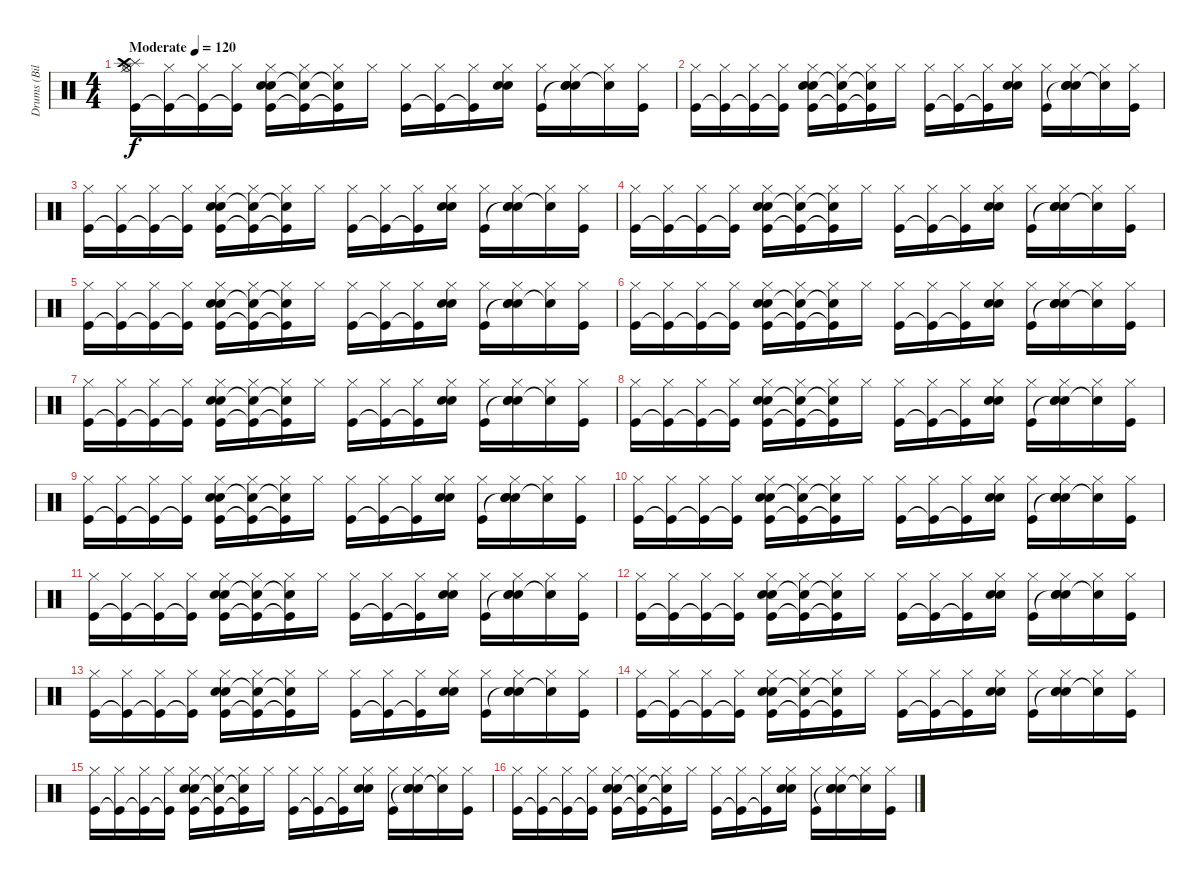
\track ("Drums (Bilerman)" "Drums (Bil") {instrument percussion}
\staff {score}
\articulation defaults
\ts (4 4)
\tempo (120 "Moderate")
\clef neutral
\ks c
("Kick (hit)" "Splash (hit)" "Hi-Hat (open)" "Crash high (hit)" "Hi-Hat (closed)").16{dy f} ("Kick (hit)"{t} "Hi-Hat (closed)").16 ("Kick (hit)"{t} "Hi-Hat (closed)").16 ("Kick (hit)"{t} "Hi-Hat (closed)").16 ("Kick (hit)" "Snare (hit) 2" "Snare (hit) 2" "Hi-Hat (closed)").16 ("Kick (hit)"{t} "Snare (hit) 2"{t} "Hi-Hat (closed)").16 ("Kick (hit)"{t} "Snare (hit) 2"{t} "Hi-Hat (closed)").16 "Hi-Hat (closed)".16 ("Kick (hit)" "Hi-Hat (closed)").16 ("Kick (hit)"{t} "Hi-Hat (closed)").16 ("Kick (hit)"{t} "Hi-Hat (closed)").16 ("Snare (hit) 2" "Snare (hit) 2" "Hi-Hat (closed)").16 ("Kick (hit)" "Hi-Hat (closed)").16 ("Snare (hit)"{t} "Snare (hit) 2" "Snare (hit) 2" "Hi-Hat (closed)").16 ("Snare (hit) 2"{t} "Hi-Hat (closed)").16 ("Kick (hit)" "Hi-Hat (closed)").16 |
("Kick (hit)" "Hi-Hat (closed)").16 ("Kick (hit)"{t} "Hi-Hat (closed)").16 ("Kick (hit)"{t} "Hi-Hat (closed)").16 ("Kick (hit)"{t} "Hi-Hat (closed)").16 ("Kick (hit)" "Snare (hit) 2" "Snare (hit) 2" "Hi-Hat (closed)").16 ("Kick (hit)"{t} "Snare (hit) 2"{t} "Hi-Hat (closed)").16 ("Kick (hit)"{t} "Snare (hit) 2"{t} "Hi-Hat (closed)").16 "Hi-Hat (closed)".16 ("Kick (hit)" "Hi-Hat (closed)").16 ("Kick (hit)"{t} "Hi-Hat (closed)").16 ("Kick (hit)"{t} "Hi-Hat (closed)").16 ("Snare (hit) 2" "Snare (hit) 2" "Hi-Hat (closed)").16 ("Kick (hit)" "Hi-Hat (closed)").16 ("Snare (hit)"{t} "Snare (hit) 2" "Snare (hit) 2" "Hi-Hat (closed)").16 ("Snare (hit) 2"{t} "Hi-Hat (closed)").16 ("Kick (hit)" "Hi-Hat (closed)").16 |
("Kick (hit)" "Hi-Hat (closed)").16 ("Kick (hit)"{t} "Hi-Hat (closed)").16 ("Kick (hit)"{t} "Hi-Hat (closed)").16 ("Kick (hit)"{t} "Hi-Hat (closed)").16 ("Kick (hit)" "Snare (hit) 2" "Snare (hit) 2" "Hi-Hat (closed)").16 ("Kick (hit)"{t} "Snare (hit) 2"{t} "Hi-Hat (closed)").16 ("Kick (hit)"{t} "Snare (hit) 2"{t} "Hi-Hat (closed)").16 "Hi-Hat (closed)".16 ("Kick (hit)" "Hi-Hat (closed)").16 ("Kick (hit)"{t} "Hi-Hat (closed)").16 ("Kick (hit)"{t} "Hi-Hat (closed)").16 ("Snare (hit) 2" "Snare (hit) 2" "Hi-Hat (closed)").16 ("Kick (hit)" "Hi-Hat (closed)").16 ("Snare (hit)"{t} "Snare (hit) 2" "Snare (hit) 2" "Hi-Hat (closed)").16 ("Snare (hit) 2"{t} "Hi-Hat (closed)").16 ("Kick (hit)" "Hi-Hat (closed)").16 |
("Kick (hit)" "Hi-Hat (closed)").16 ("Kick (hit)"{t} "Hi-Hat (closed)").16 ("Kick (hit)"{t} "Hi-Hat (closed)").16 ("Kick (hit)"{t} "Hi-Hat (closed)").16 ("Kick (hit)" "Snare (hit) 2" "Snare (hit) 2" "Hi-Hat (closed)").16 ("Kick (hit)"{t} "Snare (hit) 2"{t} "Hi-Hat (closed)").16 ("Kick (hit)"{t} "Snare (hit) 2"{t} "Hi-Hat (closed)").16 "Hi-Hat (closed)".16 ("Kick (hit)" "Hi-Hat (closed)").16 ("Kick (hit)"{t} "Hi-Hat (closed)").16 ("Kick (hit)"{t} "Hi-Hat (closed)").16 ("Snare (hit) 2" "Snare (hit) 2" "Hi-Hat (closed)").16 ("Kick (hit)" "Hi-Hat (closed)").16 ("Snare (hit)"{t} "Snare (hit) 2" "Snare (hit) 2" "Hi-Hat (closed)").16 ("Snare (hit) 2"{t} "Hi-Hat (closed)").16 ("Kick (hit)" "Hi-Hat (closed)").16 |
("Kick (hit)" "Hi-Hat (closed)").16 ("Kick (hit)"{t} "Hi-Hat (closed)").16 ("Kick (hit)"{t} "Hi-Hat (closed)").16 ("Kick (hit)"{t} "Hi-Hat (closed)").16 ("Kick (hit)" "Snare (hit) 2" "Snare (hit) 2" "Hi-Hat (closed)").16 ("Kick (hit)"{t} "Snare (hit) 2"{t} "Hi-Hat (closed)").16 ("Kick (hit)"{t} "Snare (hit) 2"{t} "Hi-Hat (closed)").16 "Hi-Hat (closed)".16 ("Kick (hit)" "Hi-Hat (closed)").16 ("Kick (hit)"{t} "Hi-Hat (closed)").16 ("Kick (hit)"{t} "Hi-Hat (closed)").16 ("Snare (hit) 2" "Snare (hit) 2" "Hi-Hat (closed)").16 ("Kick (hit)" "Hi-Hat (closed)").16 ("Snare (hit)"{t} "Snare (hit) 2" "Snare (hit) 2" "Hi-Hat (closed)").16 ("Snare (hit) 2"{t} "Hi-Hat (closed)").16 ("Kick (hit)" "Hi-Hat (closed)").16 |
("Kick (hit)" "Hi-Hat (closed)").16 ("Kick (hit)"{t} "Hi-Hat (closed)").16 ("Kick (hit)"{t} "Hi-Hat (closed)").16 ("Kick (hit)"{t} "Hi-Hat (closed)").16 ("Kick (hit)" "Snare (hit) 2" "Snare (hit) 2" "Hi-Hat (closed)").16 ("Kick (hit)"{t} "Snare (hit) 2"{t} "Hi-Hat (closed)").16 ("Kick (hit)"{t} "Snare (hit) 2"{t} "Hi-Hat (closed)").16 "Hi-Hat (closed)".16 ("Kick (hit)" "Hi-Hat (closed)").16 ("Kick (hit)"{t} "Hi-Hat (closed)").16 ("Kick (hit)"{t} "Hi-Hat (closed)").16 ("Snare (hit) 2" "Snare (hit) 2" "Hi-Hat (closed)").16 ("Kick (hit)" "Hi-Hat (closed)").16 ("Snare (hit)"{t} "Snare (hit) 2" "Snare (hit) 2" "Hi-Hat (closed)").16 ("Snare (hit) 2"{t} "Hi-Hat (closed)").16 ("Kick (hit)" "Hi-Hat (closed)").16 |
("Kick (hit)" "Hi-Hat (closed)").16 ("Kick (hit)"{t} "Hi-Hat (closed)").16 ("Kick (hit)"{t} "Hi-Hat (closed)").16 ("Kick (hit)"{t} "Hi-Hat (closed)").16 ("Kick (hit)" "Snare (hit) 2" "Snare (hit) 2" "Hi-Hat (closed)").16 ("Kick (hit)"{t} "Snare (hit) 2"{t} "Hi-Hat (closed)").16 ("Kick (hit)"{t} "Snare (hit) 2"{t} "Hi-Hat (closed)").16 "Hi-Hat (closed)".16 ("Kick (hit)" "Hi-Hat (closed)").16 ("Kick (hit)"{t} "Hi-Hat (closed)").16 ("Kick (hit)"{t} "Hi-Hat (closed)").16 ("Snare (hit) 2" "Snare (hit) 2" "Hi-Hat (closed)").16 ("Kick (hit)" "Hi-Hat (closed)").16 ("Snare (hit)"{t} "Snare (hit) 2" "Snare (hit) 2" "Hi-Hat (closed)").16 ("Snare (hit) 2"{t} "Hi-Hat (closed)").16 ("Kick (hit)" "Hi-Hat (closed)").16 |
("Kick (hit)" "Hi-Hat (closed)").16 ("Kick (hit)"{t} "Hi-Hat (closed)").16 ("Kick (hit)"{t} "Hi-Hat (closed)").16 ("Kick (hit)"{t} "Hi-Hat (closed)").16 ("Kick (hit)" "Snare (hit) 2" "Snare (hit) 2" "Hi-Hat (closed)").16 ("Kick (hit)"{t} "Snare (hit) 2"{t} "Hi-Hat (closed)").16 ("Kick (hit)"{t} "Snare (hit) 2"{t} "Hi-Hat (closed)").16 "Hi-Hat (closed)".16 ("Kick (hit)" "Hi-Hat (closed)").16 ("Kick (hit)"{t} "Hi-Hat (closed)").16 ("Kick (hit)"{t} "Hi-Hat (closed)").16 ("Snare (hit) 2" "Snare (hit) 2" "Hi-Hat (closed)").16 ("Kick (hit)" "Hi-Hat (closed)").16 ("Snare (hit)"{t} "Snare (hit) 2" "Snare (hit) 2" "Hi-Hat (closed)").16 ("Snare (hit) 2"{t} "Hi-Hat (closed)").16 ("Kick (hit)" "Hi-Hat (closed)").16 |
("Kick (hit)" "Hi-Hat (closed)").16 ("Kick (hit)"{t} "Hi-Hat (closed)").16 ("Kick (hit)"{t} "Hi-Hat (closed)").16 ("Kick (hit)"{t} "Hi-Hat (closed)").16 ("Kick (hit)" "Snare (hit) 2" "Snare (hit) 2" "Hi-Hat (closed)").16 ("Kick (hit)"{t} "Snare (hit) 2"{t} "Hi-Hat (closed)").16 ("Kick (hit)"{t} "Snare (hit) 2"{t} "Hi-Hat (closed)").16 "Hi-Hat (closed)".16 ("Kick (hit)" "Hi-Hat (closed)").16 ("Kick (hit)"{t} "Hi-Hat (closed)").16 ("Kick (hit)"{t} "Hi-Hat (closed)").16 ("Snare (hit) 2" "Snare (hit) 2" "Hi-Hat (closed)").16 ("Kick (hit)" "Hi-Hat (closed)").16 ("Snare (hit)"{t} "Snare (hit) 2" "Snare (hit) 2" "Hi-Hat (closed)").16 ("Snare (hit) 2"{t} "Hi-Hat (closed)").16 ("Kick (hit)" "Hi-Hat (closed)").16 |
("Kick (hit)" "Hi-Hat (closed)").16 ("Kick (hit)"{t} "Hi-Hat (closed)").16 ("Kick (hit)"{t} "Hi-Hat (closed)").16 ("Kick (hit)"{t} "Hi-Hat (closed)").16 ("Kick (hit)" "Snare (hit) 2" "Snare (hit) 2" "Hi-Hat (closed)").16 ("Kick (hit)"{t} "Snare (hit) 2"{t} "Hi-Hat (closed)").16 ("Kick (hit)"{t} "Snare (hit) 2"{t} "Hi-Hat (closed)").16 "Hi-Hat (closed)".16 ("Kick (hit)" "Hi-Hat (closed)").16 ("Kick (hit)"{t} "Hi-Hat (closed)").16 ("Kick (hit)"{t} "Hi-Hat (closed)").16 ("Snare (hit) 2" "Snare (hit) 2" "Hi-Hat (closed)").16 ("Kick (hit)" "Hi-Hat (closed)").16 ("Snare (hit)"{t} "Snare (hit) 2" "Snare (hit) 2" "Hi-Hat (closed)").16 ("Snare (hit) 2"{t} "Hi-Hat (closed)").16 ("Kick (hit)" "Hi-Hat (closed)").16 |
("Kick (hit)" "Hi-Hat (closed)").16 ("Kick (hit)"{t} "Hi-Hat (closed)").16 ("Kick (hit)"{t} "Hi-Hat (closed)").16 ("Kick (hit)"{t} "Hi-Hat (closed)").16 ("Kick (hit)" "Snare (hit) 2" "Snare (hit) 2" "Hi-Hat (closed)").16 ("Kick (hit)"{t} "Snare (hit) 2"{t} "Hi-Hat (closed)").16 ("Kick (hit)"{t} "Snare (hit) 2"{t} "Hi-Hat (closed)").16 "Hi-Hat (closed)".16 ("Kick (hit)" "Hi-Hat (closed)").16 ("Kick (hit)"{t} "Hi-Hat (closed)").16 ("Kick (hit)"{t} "Hi-Hat (closed)").16 ("Snare (hit) 2" "Snare (hit) 2" "Hi-Hat (closed)").16 ("Kick (hit)" "Hi-Hat (closed)").16 ("Snare (hit)"{t} "Snare (hit) 2" "Snare (hit) 2" "Hi-Hat (closed)").16 ("Snare (hit) 2"{t} "Hi-Hat (closed)").16 ("Kick (hit)" "Hi-Hat (closed)").16 |
("Kick (hit)" "Hi-Hat (closed)").16 ("Kick (hit)"{t} "Hi-Hat (closed)").16 ("Kick (hit)"{t} "Hi-Hat (closed)").16 ("Kick (hit)"{t} "Hi-Hat (closed)").16 ("Kick (hit)" "Snare (hit) 2" "Snare (hit) 2" "Hi-Hat (closed)").16 ("Kick (hit)"{t} "Snare (hit) 2"{t} "Hi-Hat (closed)").16 ("Kick (hit)"{t} "Snare (hit) 2"{t} "Hi-Hat (closed)").16 "Hi-Hat (closed)".16 ("Kick (hit)" "Hi-Hat (closed)").16 ("Kick (hit)"{t} "Hi-Hat (closed)").16 ("Kick (hit)"{t} "Hi-Hat (closed)").16 ("Snare (hit) 2" "Snare (hit) 2" "Hi-Hat (closed)").16 ("Kick (hit)" "Hi-Hat (closed)").16 ("Snare (hit)"{t} "Snare (hit) 2" "Snare (hit) 2" "Hi-Hat (closed)").16 ("Snare (hit) 2"{t} "Hi-Hat (closed)").16 ("Kick (hit)" "Hi-Hat (closed)").16 |
("Kick (hit)" "Hi-Hat (closed)").16 ("Kick (hit)"{t} "Hi-Hat (closed)").16 ("Kick (hit)"{t} "Hi-Hat (closed)").16 ("Kick (hit)"{t} "Hi-Hat (closed)").16 ("Kick (hit)" "Snare (hit) 2" "Snare (hit) 2" "Hi-Hat (closed)").16 ("Kick (hit)"{t} "Snare (hit) 2"{t} "Hi-Hat (closed)").16 ("Kick (hit)"{t} "Snare (hit) 2"{t} "Hi-Hat (closed)").16 "Hi-Hat (closed)".16 ("Kick (hit)" "Hi-Hat (closed)").16 ("Kick (hit)"{t} "Hi-Hat (closed)").16 ("Kick (hit)"{t} "Hi-Hat (closed)").16 ("Snare (hit) 2" "Snare (hit) 2" "Hi-Hat (closed)").16 ("Kick (hit)" "Hi-Hat (closed)").16 ("Snare (hit)"{t} "Snare (hit) 2" "Snare (hit) 2" "Hi-Hat (closed)").16 ("Snare (hit) 2"{t} "Hi-Hat (closed)").16 ("Kick (hit)" "Hi-Hat (closed)").16 |
("Kick (hit)" "Hi-Hat (closed)").16 ("Kick (hit)"{t} "Hi-Hat (closed)").16 ("Kick (hit)"{t} "Hi-Hat (closed)").16 ("Kick (hit)"{t} "Hi-Hat (closed)").16 ("Kick (hit)" "Snare (hit) 2" "Snare (hit) 2" "Hi-Hat (closed)").16 ("Kick (hit)"{t} "Snare (hit) 2"{t} "Hi-Hat (closed)").16 ("Kick (hit)"{t} "Snare (hit) 2"{t} "Hi-Hat (closed)").16 "Hi-Hat (closed)".16 ("Kick (hit)" "Hi-Hat (closed)").16 ("Kick (hit)"{t} "Hi-Hat (closed)").16 ("Kick (hit)"{t} "Hi-Hat (closed)").16 ("Snare (hit) 2" "Snare (hit) 2" "Hi-Hat (closed)").16 ("Kick (hit)" "Hi-Hat (closed)").16 ("Snare (hit)"{t} "Snare (hit) 2" "Snare (hit) 2" "Hi-Hat (closed)").16 ("Snare (hit) 2"{t} "Hi-Hat (closed)").16 ("Kick (hit)" "Hi-Hat (closed)").16 |
("Kick (hit)" "Hi-Hat (closed)").16 ("Kick (hit)"{t} "Hi-Hat (closed)").16 ("Kick (hit)"{t} "Hi-Hat (closed)").16 ("Kick (hit)"{t} "Hi-Hat (closed)").16 ("Kick (hit)" "Snare (hit) 2" "Snare (hit) 2" "Hi-Hat (closed)").16 ("Kick (hit)"{t} "Snare (hit) 2"{t} "Hi-Hat (closed)").16 ("Kick (hit)"{t} "Snare (hit) 2"{t} "Hi-Hat (closed)").16 "Hi-Hat (closed)".16 ("Kick (hit)" "Hi-Hat (closed)").16 ("Kick (hit)"{t} "Hi-Hat (closed)").16 ("Kick (hit)"{t} "Hi-Hat (closed)").16 ("Snare (hit) 2" "Snare (hit) 2" "Hi-Hat (closed)").16 ("Kick (hit)" "Hi-Hat (closed)").16 ("Snare (hit)"{t} "Snare (hit) 2" "Snare (hit) 2" "Hi-Hat (closed)").16 ("Snare (hit) 2"{t} "Hi-Hat (closed)").16 ("Kick (hit)" "Hi-Hat (closed)").16 |
("Kick (hit)" "Hi-Hat (closed)").16 ("Kick (hit)"{t} "Hi-Hat (closed)").16 ("Kick (hit)"{t} "Hi-Hat (closed)").16 ("Kick (hit)"{t} "Hi-Hat (closed)").16 ("Kick (hit)" "Snare (hit) 2" "Snare (hit) 2" "Hi-Hat (closed)").16 ("Kick (hit)"{t} "Snare (hit) 2"{t} "Hi-Hat (closed)").16 ("Kick (hit)"{t} "Snare (hit) 2"{t} "Hi-Hat (closed)").16 "Hi-Hat (closed)".16 ("Kick (hit)" "Hi-Hat (closed)").16 ("Kick (hit)"{t} "Hi-Hat (closed)").16 ("Kick (hit)"{t} "Hi-Hat (closed)").16 ("Snare (hit) 2" "Snare (hit) 2" "Hi-Hat (closed)").16 ("Kick (hit)" "Hi-Hat (closed)").16 ("Snare (hit)"{t} "Snare (hit) 2" "Snare (hit) 2" "Hi-Hat (closed)").16 ("Snare (hit) 2"{t} "Hi-Hat (closed)").16 ("Kick (hit)" "Hi-Hat (closed)").16
